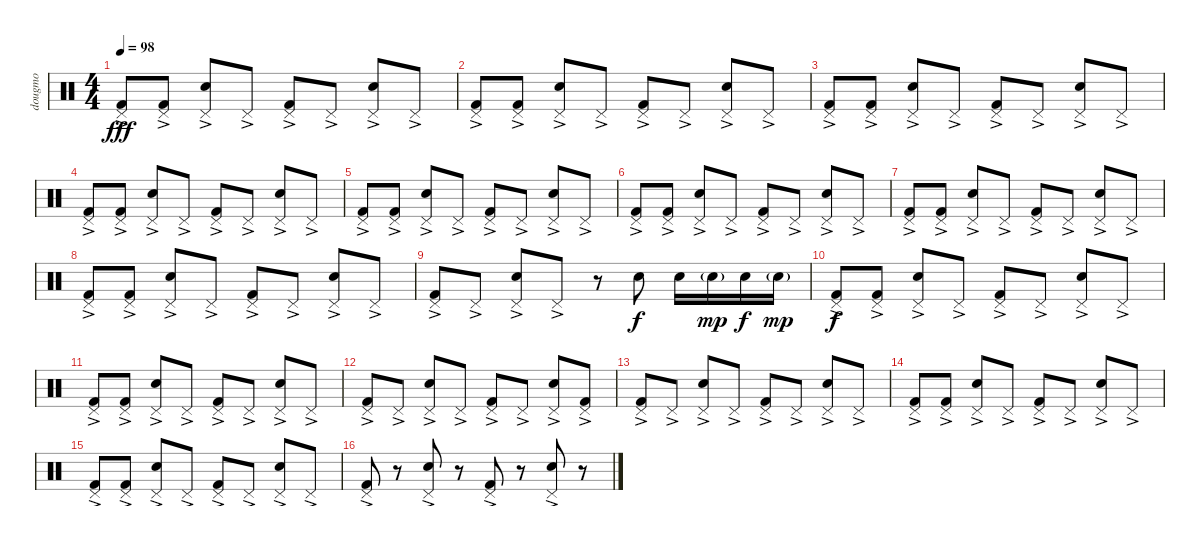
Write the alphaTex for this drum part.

\track ("dougmo" "dougmo") {instrument percussion}
\staff {score}
\articulation defaults
\ts (4 4)
\tempo 98
\clef neutral
\ks c
("Pedal Hi-Hat (hit)"{ac} "Kick (hit) 2").8{dy fff} ("Pedal Hi-Hat (hit)"{ac} "Kick (hit) 2").8 ("Pedal Hi-Hat (hit)"{ac} "Electric Snare (hit)").8 "Pedal Hi-Hat (hit)"{ac}.8 ("Pedal Hi-Hat (hit)"{ac} "Kick (hit) 2").8 "Pedal Hi-Hat (hit)"{ac}.8 ("Pedal Hi-Hat (hit)"{ac} "Electric Snare (hit)").8 "Pedal Hi-Hat (hit)"{ac}.8 |
("Pedal Hi-Hat (hit)"{ac} "Kick (hit) 2").8 ("Pedal Hi-Hat (hit)"{ac} "Kick (hit) 2").8 ("Pedal Hi-Hat (hit)"{ac} "Electric Snare (hit)").8 "Pedal Hi-Hat (hit)"{ac}.8 ("Pedal Hi-Hat (hit)"{ac} "Kick (hit) 2").8 "Pedal Hi-Hat (hit)"{ac}.8 ("Pedal Hi-Hat (hit)"{ac} "Electric Snare (hit)").8 "Pedal Hi-Hat (hit)"{ac}.8 |
("Pedal Hi-Hat (hit)"{ac} "Kick (hit) 2").8 ("Pedal Hi-Hat (hit)"{ac} "Kick (hit) 2").8 ("Pedal Hi-Hat (hit)"{ac} "Electric Snare (hit)").8 "Pedal Hi-Hat (hit)"{ac}.8 ("Pedal Hi-Hat (hit)"{ac} "Kick (hit) 2").8 "Pedal Hi-Hat (hit)"{ac}.8 ("Pedal Hi-Hat (hit)"{ac} "Electric Snare (hit)").8 "Pedal Hi-Hat (hit)"{ac}.8 |
("Pedal Hi-Hat (hit)"{ac} "Kick (hit) 2").8 ("Pedal Hi-Hat (hit)"{ac} "Kick (hit) 2").8 ("Pedal Hi-Hat (hit)"{ac} "Electric Snare (hit)").8 "Pedal Hi-Hat (hit)"{ac}.8 ("Pedal Hi-Hat (hit)"{ac} "Kick (hit) 2").8 "Pedal Hi-Hat (hit)"{ac}.8 ("Pedal Hi-Hat (hit)"{ac} "Electric Snare (hit)").8 "Pedal Hi-Hat (hit)"{ac}.8 |
("Pedal Hi-Hat (hit)"{ac} "Kick (hit) 2").8 ("Pedal Hi-Hat (hit)"{ac} "Kick (hit) 2").8 ("Pedal Hi-Hat (hit)"{ac} "Electric Snare (hit)").8 "Pedal Hi-Hat (hit)"{ac}.8 ("Pedal Hi-Hat (hit)"{ac} "Kick (hit) 2").8 "Pedal Hi-Hat (hit)"{ac}.8 ("Pedal Hi-Hat (hit)"{ac} "Electric Snare (hit)").8 "Pedal Hi-Hat (hit)"{ac}.8 |
("Pedal Hi-Hat (hit)"{ac} "Kick (hit) 2").8 ("Pedal Hi-Hat (hit)"{ac} "Kick (hit) 2").8 ("Pedal Hi-Hat (hit)"{ac} "Electric Snare (hit)").8 "Pedal Hi-Hat (hit)"{ac}.8 ("Pedal Hi-Hat (hit)"{ac} "Kick (hit) 2").8 "Pedal Hi-Hat (hit)"{ac}.8 ("Pedal Hi-Hat (hit)"{ac} "Electric Snare (hit)").8 "Pedal Hi-Hat (hit)"{ac}.8 |
("Pedal Hi-Hat (hit)"{ac} "Kick (hit) 2").8 ("Pedal Hi-Hat (hit)"{ac} "Kick (hit) 2").8 ("Pedal Hi-Hat (hit)"{ac} "Electric Snare (hit)").8 "Pedal Hi-Hat (hit)"{ac}.8 ("Pedal Hi-Hat (hit)"{ac} "Kick (hit) 2").8 "Pedal Hi-Hat (hit)"{ac}.8 ("Pedal Hi-Hat (hit)"{ac} "Electric Snare (hit)").8 "Pedal Hi-Hat (hit)"{ac}.8 |
("Pedal Hi-Hat (hit)"{ac} "Kick (hit) 2").8 ("Pedal Hi-Hat (hit)"{ac} "Kick (hit) 2").8 ("Pedal Hi-Hat (hit)"{ac} "Electric Snare (hit)").8 "Pedal Hi-Hat (hit)"{ac}.8 ("Pedal Hi-Hat (hit)"{ac} "Kick (hit) 2").8 "Pedal Hi-Hat (hit)"{ac}.8 ("Pedal Hi-Hat (hit)"{ac} "Electric Snare (hit)").8 "Pedal Hi-Hat (hit)"{ac}.8 |
("Pedal Hi-Hat (hit)"{ac} "Kick (hit) 2").8 "Pedal Hi-Hat (hit)"{ac}.8 ("Pedal Hi-Hat (hit)"{ac} "Electric Snare (hit)").8 "Pedal Hi-Hat (hit)"{ac}.8 r.8 "Electric Snare (hit)".8{dy f} "Electric Snare (hit)".16 "Electric Snare (hit)"{g}.16{dy mp} "Electric Snare (hit)".16{dy f} "Electric Snare (hit)"{g}.16{dy mp} |
("Pedal Hi-Hat (hit)"{ac} "Kick (hit) 2").8{dy f} ("Pedal Hi-Hat (hit)"{ac} "Kick (hit) 2").8 ("Pedal Hi-Hat (hit)"{ac} "Electric Snare (hit)").8 "Pedal Hi-Hat (hit)"{ac}.8 ("Pedal Hi-Hat (hit)"{ac} "Kick (hit) 2").8 "Pedal Hi-Hat (hit)"{ac}.8 ("Pedal Hi-Hat (hit)"{ac} "Electric Snare (hit)").8 "Pedal Hi-Hat (hit)"{ac}.8 |
("Pedal Hi-Hat (hit)"{ac} "Kick (hit) 2").8 ("Pedal Hi-Hat (hit)"{ac} "Kick (hit) 2").8 ("Pedal Hi-Hat (hit)"{ac} "Electric Snare (hit)").8 "Pedal Hi-Hat (hit)"{ac}.8 ("Pedal Hi-Hat (hit)"{ac} "Kick (hit) 2").8 "Pedal Hi-Hat (hit)"{ac}.8 ("Pedal Hi-Hat (hit)"{ac} "Electric Snare (hit)").8 "Pedal Hi-Hat (hit)"{ac}.8 |
("Pedal Hi-Hat (hit)"{ac} "Kick (hit) 2").8 "Pedal Hi-Hat (hit)"{ac}.8 ("Pedal Hi-Hat (hit)"{ac} "Electric Snare (hit)").8 "Pedal Hi-Hat (hit)"{ac}.8 ("Pedal Hi-Hat (hit)"{ac} "Kick (hit) 2").8 "Pedal Hi-Hat (hit)"{ac}.8 ("Pedal Hi-Hat (hit)"{ac} "Electric Snare (hit)").8 ("Pedal Hi-Hat (hit)"{ac} "Kick (hit) 2").8 |
("Pedal Hi-Hat (hit)"{ac} "Kick (hit) 2").8 "Pedal Hi-Hat (hit)"{ac}.8 ("Pedal Hi-Hat (hit)"{ac} "Electric Snare (hit)").8 "Pedal Hi-Hat (hit)"{ac}.8 ("Pedal Hi-Hat (hit)"{ac} "Kick (hit) 2").8 "Pedal Hi-Hat (hit)"{ac}.8 ("Pedal Hi-Hat (hit)"{ac} "Electric Snare (hit)").8 "Pedal Hi-Hat (hit)"{ac}.8 |
("Pedal Hi-Hat (hit)"{ac} "Kick (hit) 2").8 ("Pedal Hi-Hat (hit)"{ac} "Kick (hit) 2").8 ("Pedal Hi-Hat (hit)"{ac} "Electric Snare (hit)").8 "Pedal Hi-Hat (hit)"{ac}.8 ("Pedal Hi-Hat (hit)"{ac} "Kick (hit) 2").8 "Pedal Hi-Hat (hit)"{ac}.8 ("Pedal Hi-Hat (hit)"{ac} "Electric Snare (hit)").8 "Pedal Hi-Hat (hit)"{ac}.8 |
("Pedal Hi-Hat (hit)"{ac} "Kick (hit) 2").8 ("Pedal Hi-Hat (hit)"{ac} "Kick (hit) 2").8 ("Pedal Hi-Hat (hit)"{ac} "Electric Snare (hit)").8 "Pedal Hi-Hat (hit)"{ac}.8 ("Pedal Hi-Hat (hit)"{ac} "Kick (hit) 2").8 "Pedal Hi-Hat (hit)"{ac}.8 ("Pedal Hi-Hat (hit)"{ac} "Electric Snare (hit)").8 "Pedal Hi-Hat (hit)"{ac}.8 |
("Pedal Hi-Hat (hit)"{ac} "Kick (hit) 2").8 r.8 ("Pedal Hi-Hat (hit)"{ac} "Electric Snare (hit)").8 r.8 ("Pedal Hi-Hat (hit)"{ac} "Kick (hit) 2").8 r.8 ("Pedal Hi-Hat (hit)"{ac} "Electric Snare (hit)").8 r.8
